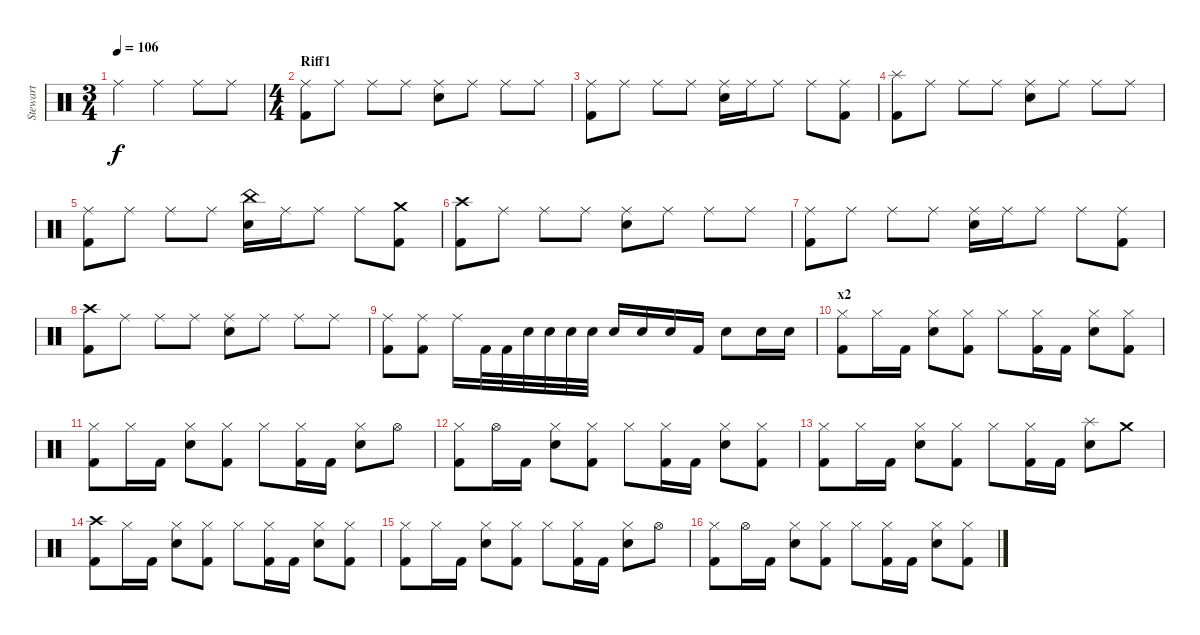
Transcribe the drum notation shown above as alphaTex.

\track ("Stewart" "Stewart") {instrument percussion}
\staff {score}
\articulation defaults
\ts (3 4)
\tempo 106
\clef neutral
\ks c "Ride (middle)".4{dy f} "Ride (middle)".4 "Ride (middle)".8 "Ride (middle)".8
|
\ts (4 4)
\section ("" "Riff1")
("Ride (middle)" "Kick (hit) 2").8 "Ride (middle)".8 "Ride (middle)".8 "Ride (middle)".8 ("Ride (middle)" "Electric Snare (hit)").8 "Ride (middle)".8 "Ride (middle)".8 "Ride (middle)".8 |
("Ride (middle)" "Kick (hit) 2").8 "Ride (middle)".8 "Ride (middle)".8 "Ride (middle)".8 ("Ride (middle)" "Electric Snare (hit)").16 "Ride (middle)".16 "Ride (middle)".8 "Ride (middle)".8 ("Ride (middle)" "Kick (hit) 2").8 |
("Splash (hit)" "Kick (hit) 2").8 "Ride (middle)".8 "Ride (middle)".8 "Ride (middle)".8 ("Ride (middle)" "Electric Snare (hit)").8 "Ride (middle)".8 "Ride (middle)".8 "Ride (middle)".8 |
("Ride (middle)" "Kick (hit) 2").8 "Ride (middle)".8 "Ride (middle)".8 "Ride (middle)".8 ("China (hit)" "Electric Snare (hit)").16 "Ride (middle)".16 "Ride (middle)".8 "Ride (middle)".8 ("Crash medium (hit)" "Kick (hit) 2").8 |
("Crash high (hit)" "Kick (hit) 2").8 "Ride (middle)".8 "Ride (middle)".8 "Ride (middle)".8 ("Ride (middle)" "Electric Snare (hit)").8 "Ride (middle)".8 "Ride (middle)".8 "Ride (middle)".8 |
("Ride (middle)" "Kick (hit) 2").8 "Ride (middle)".8 "Ride (middle)".8 "Ride (middle)".8 ("Ride (middle)" "Electric Snare (hit)").16 "Ride (middle)".16 "Ride (middle)".8 "Ride (middle)".8 ("Ride (middle)" "Kick (hit) 2").8 |
("Crash high (hit)" "Kick (hit) 2").8 "Ride (middle)".8 "Ride (middle)".8 "Ride (middle)".8 ("Ride (middle)" "Electric Snare (hit)").8 "Ride (middle)".8 "Ride (middle)".8 "Ride (middle)".8 |
("Ride (middle)" "Kick (hit) 2").8 ("Ride (middle)" "Kick (hit) 2").8 "Ride (middle)".16 "Kick (hit) 2".32 "Kick (hit) 2".32 "Electric Snare (hit)".32 "Electric Snare (hit)".32 "Electric Snare (hit)".32 "Electric Snare (hit)".32 "Electric Snare (hit)".16 "Electric Snare (hit)".16 "Electric Snare (hit)".16 "Kick (hit) 2".16 "Electric Snare (hit)".8 "Electric Snare (hit)".16 "Electric Snare (hit)".16 |
\section ("" "x2")
("Hi-Hat (closed)" "Kick (hit) 2").8 "Hi-Hat (closed)".16 "Kick (hit) 2".16 ("Hi-Hat (closed)" "Electric Snare (hit)").8 ("Hi-Hat (closed)" "Kick (hit) 2").8 "Hi-Hat (closed)".8 ("Hi-Hat (closed)" "Kick (hit) 2").16 "Kick (hit) 2".16 ("Hi-Hat (closed)" "Electric Snare (hit)").8 ("Hi-Hat (closed)" "Kick (hit) 2").8 |
("Hi-Hat (closed)" "Kick (hit) 2").8 "Hi-Hat (closed)".16 "Kick (hit) 2".16 ("Hi-Hat (closed)" "Electric Snare (hit)").8 ("Hi-Hat (closed)" "Kick (hit) 2").8 "Hi-Hat (closed)".8 ("Hi-Hat (closed)" "Kick (hit) 2").16 "Kick (hit) 2".16 ("Hi-Hat (closed)" "Electric Snare (hit)").8 "Hi-Hat (open)".8 |
("Hi-Hat (closed)" "Kick (hit) 2").8 "Hi-Hat (open)".16 "Kick (hit) 2".16 ("Hi-Hat (closed)" "Electric Snare (hit)").8 ("Hi-Hat (closed)" "Kick (hit) 2").8 "Hi-Hat (closed)".8 ("Hi-Hat (closed)" "Kick (hit) 2").16 "Kick (hit) 2".16 ("Hi-Hat (closed)" "Electric Snare (hit)").8 ("Hi-Hat (closed)" "Kick (hit) 2").8 |
("Hi-Hat (closed)" "Kick (hit) 2").8 "Hi-Hat (closed)".16 "Kick (hit) 2".16 ("Hi-Hat (closed)" "Electric Snare (hit)").8 ("Hi-Hat (closed)" "Kick (hit) 2").8 "Hi-Hat (closed)".8 ("Hi-Hat (closed)" "Kick (hit) 2").16 "Kick (hit) 2".16 ("Splash (hit)" "Electric Snare (hit)").8 "Crash medium (hit)".8 |
("Crash high (hit)" "Kick (hit) 2").8 "Hi-Hat (closed)".16 "Kick (hit) 2".16 ("Hi-Hat (closed)" "Electric Snare (hit)").8 ("Hi-Hat (closed)" "Kick (hit) 2").8 "Hi-Hat (closed)".8 ("Hi-Hat (closed)" "Kick (hit) 2").16 "Kick (hit) 2".16 ("Hi-Hat (closed)" "Electric Snare (hit)").8 ("Hi-Hat (closed)" "Kick (hit) 2").8 |
("Hi-Hat (closed)" "Kick (hit) 2").8 "Hi-Hat (closed)".16 "Kick (hit) 2".16 ("Hi-Hat (closed)" "Electric Snare (hit)").8 ("Hi-Hat (closed)" "Kick (hit) 2").8 "Hi-Hat (closed)".8 ("Hi-Hat (closed)" "Kick (hit) 2").16 "Kick (hit) 2".16 ("Hi-Hat (closed)" "Electric Snare (hit)").8 "Hi-Hat (open)".8 |
("Hi-Hat (closed)" "Kick (hit) 2").8 "Hi-Hat (open)".16 "Kick (hit) 2".16 ("Hi-Hat (closed)" "Electric Snare (hit)").8 ("Hi-Hat (closed)" "Kick (hit) 2").8 "Hi-Hat (closed)".8 ("Hi-Hat (closed)" "Kick (hit) 2").16 "Kick (hit) 2".16 ("Hi-Hat (closed)" "Electric Snare (hit)").8 ("Hi-Hat (closed)" "Kick (hit) 2").8
